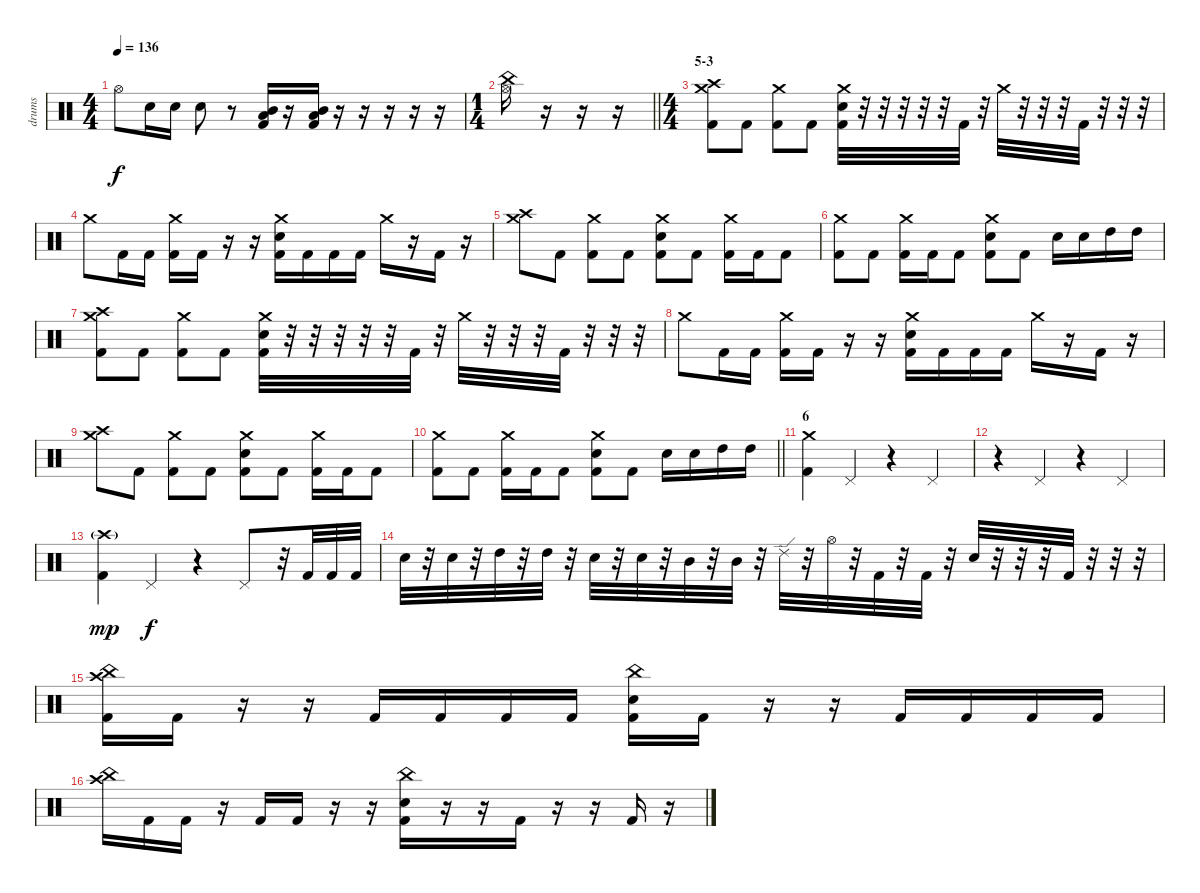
\track ("drums" "drums") {instrument percussion}
\staff {score}
\articulation defaults
\ts (4 4)
\tempo 136
\clef neutral
\ks c "Hi-Hat (open)".8{dy f} "Electric Snare (hit)".16 "Electric Snare (hit)".16 "Electric Snare (hit)".8
r.8 ("Mid Tom (hit)" "Low Floor Tom (hit)" "Kick (hit) 2").16 r.16 ("Mid Tom (hit)" "Low Floor Tom (hit)" "Kick (hit) 2").16 r.16 r.16 r.16 r.16 r.16 |
\ts (1 4)
\barLineRight lightlight
("China (hit)" "Hi-Hat (open)").16 r.16 r.16 r.16 |
\ts (4 4)
\section ("" "5-3")
("Crash medium (hit)" "Crash high (hit)" "Kick (hit) 2").8 "Kick (hit) 2".8 ("Crash medium (hit)" "Kick (hit) 2").8 "Kick (hit) 2".8 ("Crash medium (hit)" "Electric Snare (hit)" "Kick (hit) 2").32 r.32 r.32 r.32 r.32 r.32 "Kick (hit) 2".32 r.32 "Crash medium (hit)".32 r.32 r.32 r.32 "Kick (hit) 2".32 r.32 r.32 r.32 |
"Crash medium (hit)".8 "Kick (hit) 2".16 "Kick (hit) 2".16 ("Crash medium (hit)" "Kick (hit) 2").16 "Kick (hit) 2".16 r.16 r.16 ("Crash medium (hit)" "Electric Snare (hit)" "Kick (hit) 2").16 "Kick (hit) 2".16 "Kick (hit) 2".16 "Kick (hit) 2".16 "Crash medium (hit)".16 r.16 "Kick (hit) 2".16 r.16 |
("Crash medium (hit)" "Crash high (hit)").8 "Kick (hit) 2".8 ("Crash medium (hit)" "Kick (hit) 2").8 "Kick (hit) 2".8 ("Crash medium (hit)" "Electric Snare (hit)" "Kick (hit) 2").8 "Kick (hit) 2".8 ("Crash medium (hit)" "Kick (hit) 2").16 "Kick (hit) 2".16 "Kick (hit) 2".8 |
("Crash medium (hit)" "Kick (hit) 2").8 "Kick (hit) 2".8 ("Crash medium (hit)" "Kick (hit) 2").16 "Kick (hit) 2".16 "Kick (hit) 2".8 ("Crash medium (hit)" "Electric Snare (hit)" "Kick (hit) 2").8 "Kick (hit) 2".8 "Electric Snare (hit)".16 "Electric Snare (hit)".16 "High Tom (hit)".16 "High Tom (hit)".16 |
("Crash medium (hit)" "Crash high (hit)" "Kick (hit) 2").8 "Kick (hit) 2".8 ("Crash medium (hit)" "Kick (hit) 2").8 "Kick (hit) 2".8 ("Crash medium (hit)" "Electric Snare (hit)" "Kick (hit) 2").32 r.32 r.32 r.32 r.32 r.32 "Kick (hit) 2".32 r.32 "Crash medium (hit)".32 r.32 r.32 r.32 "Kick (hit) 2".32 r.32 r.32 r.32 |
"Crash medium (hit)".8 "Kick (hit) 2".16 "Kick (hit) 2".16 ("Crash medium (hit)" "Kick (hit) 2").16 "Kick (hit) 2".16 r.16 r.16 ("Crash medium (hit)" "Electric Snare (hit)" "Kick (hit) 2").16 "Kick (hit) 2".16 "Kick (hit) 2".16 "Kick (hit) 2".16 "Crash medium (hit)".16 r.16 "Kick (hit) 2".16 r.16 |
("Crash medium (hit)" "Crash high (hit)").8 "Kick (hit) 2".8 ("Crash medium (hit)" "Kick (hit) 2").8 "Kick (hit) 2".8 ("Crash medium (hit)" "Electric Snare (hit)" "Kick (hit) 2").8 "Kick (hit) 2".8 ("Crash medium (hit)" "Kick (hit) 2").16 "Kick (hit) 2".16 "Kick (hit) 2".8 |
\barLineRight lightlight
("Crash medium (hit)" "Kick (hit) 2").8 "Kick (hit) 2".8 ("Crash medium (hit)" "Kick (hit) 2").16 "Kick (hit) 2".16 "Kick (hit) 2".8 ("Crash medium (hit)" "Electric Snare (hit)" "Kick (hit) 2").8 "Kick (hit) 2".8 "Electric Snare (hit)".16 "Electric Snare (hit)".16 "High Tom (hit)".16 "High Tom (hit)".16 |
\section ("" "6")
("Crash medium (hit)" "Kick (hit) 2").4 "Pedal Hi-Hat (hit)".4 r.4 "Pedal Hi-Hat (hit)".4 |
r.4 "Pedal Hi-Hat (hit)".4 r.4 "Pedal Hi-Hat (hit)".4 |
("Crash high (hit)"{g} "Kick (hit) 2").4{dy mp} "Pedal Hi-Hat (hit)".4{dy f} r.4 "Pedal Hi-Hat (hit)".8 r.32 "Kick (hit) 2".32 "Kick (hit) 2".32 "Kick (hit) 2".32 |
"Electric Snare (hit)".32 r.32 "Electric Snare (hit)".32 r.32 "High Tom (hit)".32 r.32 "High Tom (hit)".32 r.32 "Electric Snare (hit)".32 r.32 "Electric Snare (hit)".32 r.32 "Mid Tom (hit)".32 r.32 "Mid Tom (hit)".32 r.32 "Ride (edge) 2".32 r.32 "Hi-Hat (open)".32 r.32 "Kick (hit) 2".32 r.32 "Kick (hit) 2".32 r.32 "Electric Snare (hit)".32 r.32 r.32 r.32 "Kick (hit) 2".32 r.32 r.32 r.32 |
("China (hit)" "Crash high (hit)" "Kick (hit) 2").16 "Kick (hit) 2".16 r.16 r.16 "Kick (hit) 2".16 "Kick (hit) 2".16 "Kick (hit) 2".16 "Kick (hit) 2".16 ("China (hit)" "Electric Snare (hit)" "Kick (hit) 2").16 "Kick (hit) 2".16 r.16 r.16 "Kick (hit) 2".16 "Kick (hit) 2".16 "Kick (hit) 2".16 "Kick (hit) 2".16 |
("China (hit)" "Crash high (hit)").16 "Kick (hit) 2".16 "Kick (hit) 2".16 r.16 "Kick (hit) 2".16 "Kick (hit) 2".16 r.16 r.16 ("China (hit)" "Electric Snare (hit)" "Kick (hit) 2").16 r.16 r.16 "Kick (hit) 2".16 r.16 r.16 "Kick (hit) 2".16 r.16
